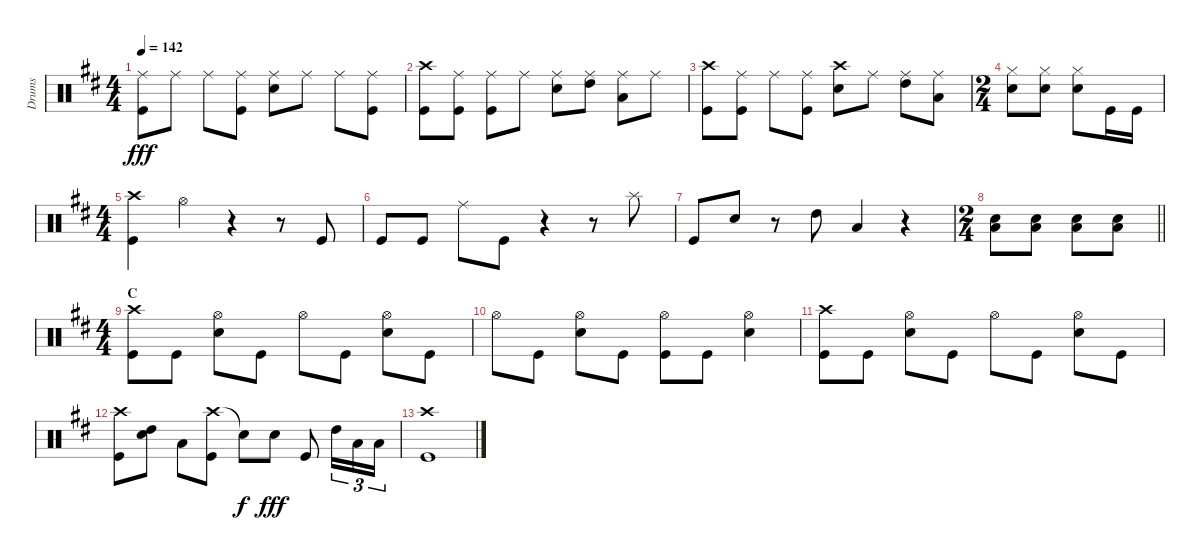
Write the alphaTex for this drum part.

\track ("Drums" "Drums") {instrument percussion}
\staff {score}
\articulation defaults
\ts (4 4)
\tempo 142
\clef neutral
\ks d
("Ride (middle)" "Kick (hit)").8{dy fff} "Ride (middle)".8 "Ride (middle)".8 ("Ride (middle)" "Kick (hit)").8 ("Ride (middle)" "Snare (hit) 2").8 "Ride (middle)".8 "Ride (middle)".8 ("Ride (middle)" "Kick (hit)").8 |
("Crash high (hit)" "Kick (hit)").8 ("Ride (middle)" "Kick (hit)").8 ("Ride (middle)" "Kick (hit)").8 "Ride (middle)".8 ("Ride (middle)" "Snare (hit) 2").8 ("Ride (middle)" "High Tom (hit)").8 ("Ride (middle)" "Low Tom (hit)").8 "Ride (middle)".8 |
("Crash high (hit)" "Kick (hit)").8 ("Ride (middle)" "Kick (hit)").8 "Ride (middle)".8 ("Ride (middle)" "Kick (hit)").8 ("Crash high (hit)" "Snare (hit) 2").8 "Ride (middle)".8 ("Ride (middle)" "High Tom (hit)").8 ("Ride (middle)" "Low Tom (hit)").8 |
\ts (2 4)
("Hi-Hat (closed)" "Snare (hit) 2").8 ("Hi-Hat (closed)" "Snare (hit) 2").8 ("Hi-Hat (closed)" "Snare (hit) 2").8 "Kick (hit)".16 "Kick (hit)".16 |
\ts (4 4)
("Crash high (hit)" "Kick (hit)").4 "Hi-Hat (open)".4 r.4 r.8 "Kick (hit)".8 |
"Kick (hit)".8 "Kick (hit)".8 "Ride (middle)".8 "Kick (hit)".8 r.4 r.8 "Splash (hit)".8 |
"Kick (hit)".8 "Snare (hit) 2".8 r.8 "High Tom (hit)".8 "Low Tom (hit)".4 r.4 |
\ts (2 4)
\barLineRight lightlight
("Low Tom (hit)" "Snare (hit) 2").8 ("Low Tom (hit)" "Snare (hit) 2").8 ("Low Tom (hit)" "Snare (hit) 2").8 ("Low Tom (hit)" "Snare (hit) 2").8 |
\ts (4 4)
\section ("" "C")
("Crash high (hit)" "Kick (hit)").8 "Kick (hit)".8 ("Hi-Hat (open)" "Snare (hit) 2").8 "Kick (hit)".8 "Hi-Hat (open)".8 "Kick (hit)".8 ("Hi-Hat (open)" "Snare (hit) 2").8 "Kick (hit)".8 |
"Hi-Hat (open)".8 "Kick (hit)".8 ("Hi-Hat (open)" "Snare (hit) 2").8 "Kick (hit)".8 ("Hi-Hat (open)" "Kick (hit)").8 "Kick (hit)".8 ("Hi-Hat (open)" "Snare (hit) 2").4 |
("Crash high (hit)" "Kick (hit)").8 "Kick (hit)".8 ("Hi-Hat (open)" "Snare (hit) 2").8 "Kick (hit)".8 "Hi-Hat (open)".8 "Kick (hit)".8 ("Hi-Hat (open)" "Snare (hit) 2").8 "Kick (hit)".8 |
("Crash high (hit)" "Kick (hit)").8 ("High Tom (hit)" "Snare (hit) 2").8 "Low Tom (hit)".8 ("Crash high (hit)" "Kick (hit)").8 "Snare (hit)"{t}.8{dy f} "Snare (hit) 2".8{dy fff} "Kick (hit)".8 "High Tom (hit)".16{tu (3 2)} "Low Tom (hit)".16{tu (3 2)} "Low Tom (hit)".16{tu (3 2)} |
("Crash high (hit)" "Kick (hit)").1
